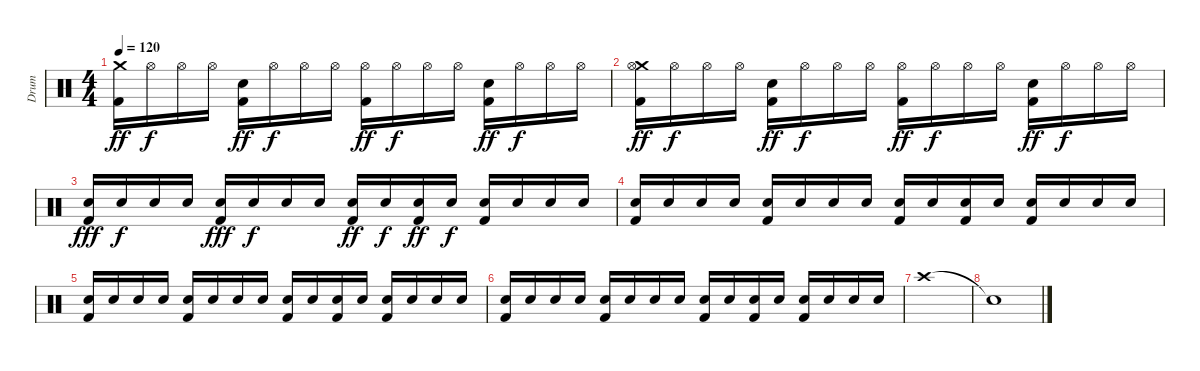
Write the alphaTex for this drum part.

\track ("Drum" "Drum") {instrument percussion}
\staff {score}
\articulation defaults
\ts (4 4)
\tempo 120
\clef neutral
\ks c
("Crash medium (hit)" "Kick (hit) 2").16{dy ff} "Hi-Hat (open)".16{dy f} "Hi-Hat (open)".16 "Hi-Hat (open)".16 ("Kick (hit) 2" "Electric Snare (hit)").16{dy ff} "Hi-Hat (open)".16{dy f} "Hi-Hat (open)".16 "Hi-Hat (open)".16 ("Hi-Hat (open)" "Kick (hit) 2").16{dy ff} "Hi-Hat (open)".16{dy f} "Hi-Hat (open)".16 "Hi-Hat (open)".16 ("Kick (hit) 2" "Electric Snare (hit)").16{dy ff} "Hi-Hat (open)".16{dy f} "Hi-Hat (open)".16 "Hi-Hat (open)".16 |
("Crash medium (hit)" "Hi-Hat (open)" "Kick (hit) 2").16{dy ff} "Hi-Hat (open)".16{dy f} "Hi-Hat (open)".16 "Hi-Hat (open)".16 ("Kick (hit) 2" "Electric Snare (hit)").16{dy ff} "Hi-Hat (open)".16{dy f} "Hi-Hat (open)".16 "Hi-Hat (open)".16 ("Hi-Hat (open)" "Kick (hit) 2").16{dy ff} "Hi-Hat (open)".16{dy f} "Hi-Hat (open)".16 "Hi-Hat (open)".16 ("Kick (hit) 2" "Electric Snare (hit)").16{dy ff} "Hi-Hat (open)".16{dy f} "Hi-Hat (open)".16 "Hi-Hat (open)".16 |
("Electric Snare (hit)" "Kick (hit) 2").16{dy fff volume 16} "Electric Snare (hit)".16{dy f} "Electric Snare (hit)".16 "Electric Snare (hit)".16 ("Electric Snare (hit)" "Kick (hit) 2").16{dy fff} "Electric Snare (hit)".16{dy f} "Electric Snare (hit)".16 "Electric Snare (hit)".16 ("Electric Snare (hit)" "Kick (hit) 2").16{dy ff} "Electric Snare (hit)".16{dy f} ("Electric Snare (hit)" "Kick (hit) 2").16{dy ff} "Electric Snare (hit)".16{dy f} ("Electric Snare (hit)" "Kick (hit) 2").16 "Electric Snare (hit)".16 "Electric Snare (hit)".16 "Electric Snare (hit)".16 |
("Electric Snare (hit)" "Kick (hit) 2").16 "Electric Snare (hit)".16 "Electric Snare (hit)".16 "Electric Snare (hit)".16 ("Electric Snare (hit)" "Kick (hit) 2").16 "Electric Snare (hit)".16 "Electric Snare (hit)".16 "Electric Snare (hit)".16 ("Electric Snare (hit)" "Kick (hit) 2").16 "Electric Snare (hit)".16 ("Electric Snare (hit)" "Kick (hit) 2").16 "Electric Snare (hit)".16 ("Electric Snare (hit)" "Kick (hit) 2").16 "Electric Snare (hit)".16 "Electric Snare (hit)".16 "Electric Snare (hit)".16 |
("Electric Snare (hit)" "Kick (hit) 2").16 "Electric Snare (hit)".16 "Electric Snare (hit)".16 "Electric Snare (hit)".16 ("Electric Snare (hit)" "Kick (hit) 2").16 "Electric Snare (hit)".16 "Electric Snare (hit)".16 "Electric Snare (hit)".16 ("Electric Snare (hit)" "Kick (hit) 2").16 "Electric Snare (hit)".16 ("Electric Snare (hit)" "Kick (hit) 2").16 "Electric Snare (hit)".16 ("Electric Snare (hit)" "Kick (hit) 2").16 "Electric Snare (hit)".16 "Electric Snare (hit)".16 "Electric Snare (hit)".16 |
("Electric Snare (hit)" "Kick (hit) 2").16 "Electric Snare (hit)".16 "Electric Snare (hit)".16 "Electric Snare (hit)".16 ("Electric Snare (hit)" "Kick (hit) 2").16 "Electric Snare (hit)".16 "Electric Snare (hit)".16 "Electric Snare (hit)".16 ("Electric Snare (hit)" "Kick (hit) 2").16 "Electric Snare (hit)".16 ("Electric Snare (hit)" "Kick (hit) 2").16 "Electric Snare (hit)".16 ("Electric Snare (hit)" "Kick (hit) 2").16 "Electric Snare (hit)".16 "Electric Snare (hit)".16 "Electric Snare (hit)".16 |
"Crash high (hit)".1 |
"Snare (hit)"{t}.1
